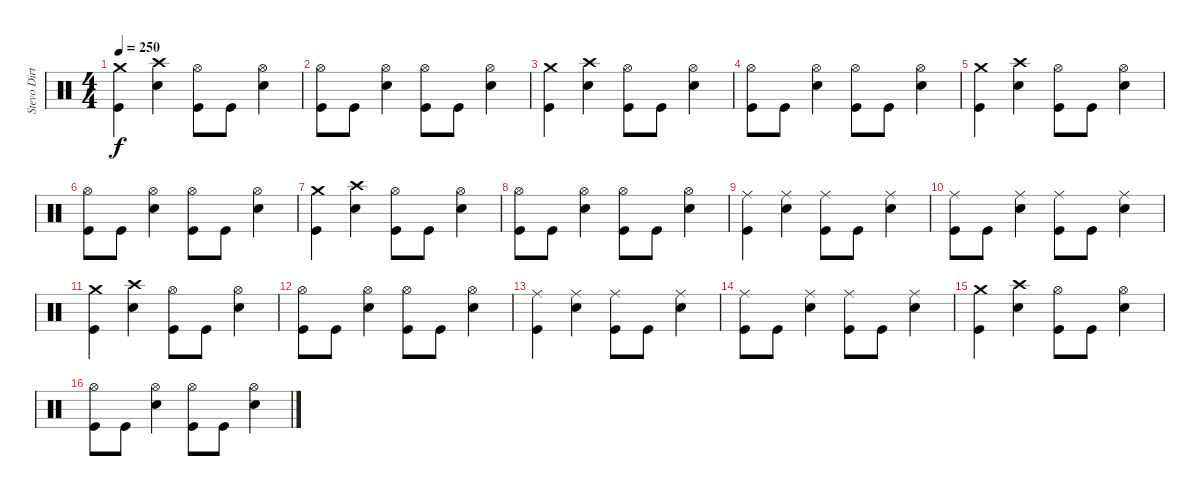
\track ("Stevo Dirty Poo" "Stevo Dirt") {instrument percussion}
\staff {score}
\articulation defaults
\ts (4 4)
\tempo 250
\clef neutral
\ks c
("Crash medium (hit)" "Kick (hit)").4{dy f} ("Crash high (hit)" "Snare (hit) 2").4 ("Hi-Hat (open)" "Kick (hit)").8 "Kick (hit)".8 ("Hi-Hat (open)" "Snare (hit) 2").4 |
("Hi-Hat (open)" "Kick (hit)").8 "Kick (hit)".8 ("Hi-Hat (open)" "Snare (hit) 2").4 ("Hi-Hat (open)" "Kick (hit)").8 "Kick (hit)".8 ("Hi-Hat (open)" "Snare (hit) 2").4 |
("Crash medium (hit)" "Kick (hit)").4 ("Crash high (hit)" "Snare (hit) 2").4 ("Hi-Hat (open)" "Kick (hit)").8 "Kick (hit)".8 ("Hi-Hat (open)" "Snare (hit) 2").4 |
("Hi-Hat (open)" "Kick (hit)").8 "Kick (hit)".8 ("Hi-Hat (open)" "Snare (hit) 2").4 ("Hi-Hat (open)" "Kick (hit)").8 "Kick (hit)".8 ("Hi-Hat (open)" "Snare (hit) 2").4 |
("Crash medium (hit)" "Kick (hit)").4 ("Crash high (hit)" "Snare (hit) 2").4 ("Hi-Hat (open)" "Kick (hit)").8 "Kick (hit)".8 ("Hi-Hat (open)" "Snare (hit) 2").4 |
("Hi-Hat (open)" "Kick (hit)").8 "Kick (hit)".8 ("Hi-Hat (open)" "Snare (hit) 2").4 ("Hi-Hat (open)" "Kick (hit)").8 "Kick (hit)".8 ("Hi-Hat (open)" "Snare (hit) 2").4 |
("Crash medium (hit)" "Kick (hit)").4 ("Crash high (hit)" "Snare (hit) 2").4 ("Hi-Hat (open)" "Kick (hit)").8 "Kick (hit)".8 ("Hi-Hat (open)" "Snare (hit) 2").4 |
("Hi-Hat (open)" "Kick (hit)").8 "Kick (hit)".8 ("Hi-Hat (open)" "Snare (hit) 2").4 ("Hi-Hat (open)" "Kick (hit)").8 "Kick (hit)".8 ("Hi-Hat (open)" "Snare (hit) 2").4 |
("Ride (middle)" "Kick (hit)").4 ("Ride (middle)" "Snare (hit) 2").4 ("Ride (middle)" "Kick (hit)").8 "Kick (hit)".8 ("Ride (middle)" "Snare (hit) 2").4 |
("Ride (middle)" "Kick (hit)").8 "Kick (hit)".8 ("Ride (middle)" "Snare (hit) 2").4 ("Ride (middle)" "Kick (hit)").8 "Kick (hit)".8 ("Ride (middle)" "Snare (hit) 2").4 |
("Crash medium (hit)" "Kick (hit)").4 ("Crash high (hit)" "Snare (hit) 2").4 ("Hi-Hat (open)" "Kick (hit)").8 "Kick (hit)".8 ("Hi-Hat (open)" "Snare (hit) 2").4 |
("Hi-Hat (open)" "Kick (hit)").8 "Kick (hit)".8 ("Hi-Hat (open)" "Snare (hit) 2").4 ("Hi-Hat (open)" "Kick (hit)").8 "Kick (hit)".8 ("Hi-Hat (open)" "Snare (hit) 2").4 |
("Ride (middle)" "Kick (hit)").4 ("Ride (middle)" "Snare (hit) 2").4 ("Ride (middle)" "Kick (hit)").8 "Kick (hit)".8 ("Ride (middle)" "Snare (hit) 2").4 |
("Ride (middle)" "Kick (hit)").8 "Kick (hit)".8 ("Ride (middle)" "Snare (hit) 2").4 ("Ride (middle)" "Kick (hit)").8 "Kick (hit)".8 ("Ride (middle)" "Snare (hit) 2").4 |
("Crash medium (hit)" "Kick (hit)").4 ("Crash high (hit)" "Snare (hit) 2").4 ("Hi-Hat (open)" "Kick (hit)").8 "Kick (hit)".8 ("Hi-Hat (open)" "Snare (hit) 2").4 |
("Hi-Hat (open)" "Kick (hit)").8 "Kick (hit)".8 ("Hi-Hat (open)" "Snare (hit) 2").4 ("Hi-Hat (open)" "Kick (hit)").8 "Kick (hit)".8 ("Hi-Hat (open)" "Snare (hit) 2").4
